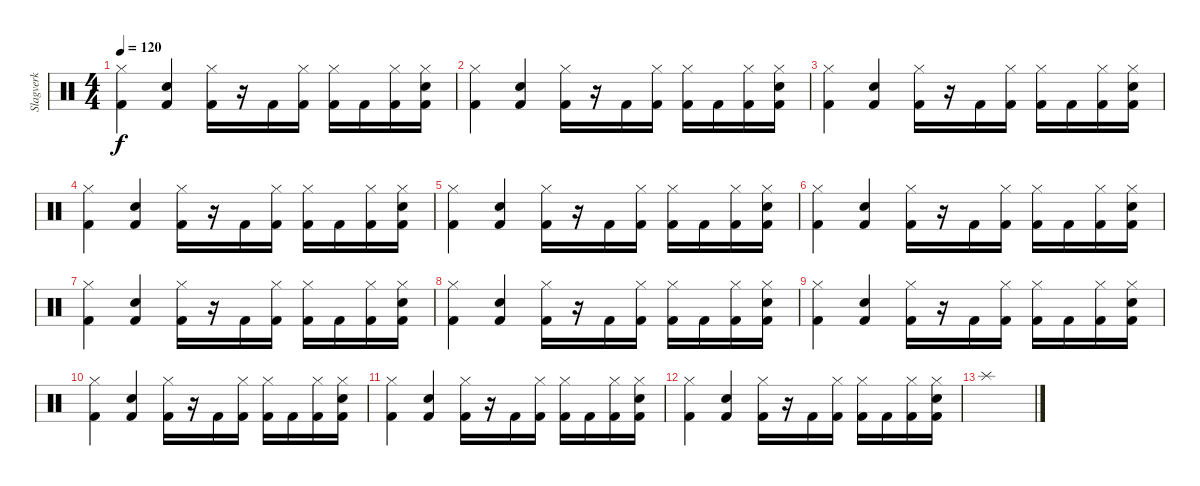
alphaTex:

\track ("Slagverk" "Slagverk") {instrument percussion}
\staff {score}
\articulation defaults
\ts (4 4)
\tempo 120
\clef neutral
\ks c
("Kick (hit) 2" "Hi-Hat (closed)").4{dy f} ("Kick (hit) 2" "Electric Snare (hit)").4 ("Kick (hit) 2" "Hi-Hat (closed)").16 r.16 "Kick (hit) 2".16 ("Kick (hit) 2" "Hi-Hat (closed)").16 ("Kick (hit) 2" "Hi-Hat (closed)").16 "Kick (hit) 2".16 ("Kick (hit) 2" "Hi-Hat (closed)").16 ("Kick (hit) 2" "Hi-Hat (closed)" "Electric Snare (hit)").16 |
("Kick (hit) 2" "Hi-Hat (closed)").4 ("Kick (hit) 2" "Electric Snare (hit)").4 ("Kick (hit) 2" "Hi-Hat (closed)").16 r.16 "Kick (hit) 2".16 ("Kick (hit) 2" "Hi-Hat (closed)").16 ("Kick (hit) 2" "Hi-Hat (closed)").16 "Kick (hit) 2".16 ("Kick (hit) 2" "Hi-Hat (closed)").16 ("Kick (hit) 2" "Hi-Hat (closed)" "Electric Snare (hit)").16 |
("Kick (hit) 2" "Hi-Hat (closed)").4 ("Kick (hit) 2" "Electric Snare (hit)").4 ("Kick (hit) 2" "Hi-Hat (closed)").16 r.16 "Kick (hit) 2".16 ("Kick (hit) 2" "Hi-Hat (closed)").16 ("Kick (hit) 2" "Hi-Hat (closed)").16 "Kick (hit) 2".16 ("Kick (hit) 2" "Hi-Hat (closed)").16 ("Kick (hit) 2" "Hi-Hat (closed)" "Electric Snare (hit)").16 |
("Kick (hit) 2" "Hi-Hat (closed)").4 ("Kick (hit) 2" "Electric Snare (hit)").4 ("Kick (hit) 2" "Hi-Hat (closed)").16 r.16 "Kick (hit) 2".16 ("Kick (hit) 2" "Hi-Hat (closed)").16 ("Kick (hit) 2" "Hi-Hat (closed)").16 "Kick (hit) 2".16 ("Kick (hit) 2" "Hi-Hat (closed)").16 ("Kick (hit) 2" "Hi-Hat (closed)" "Electric Snare (hit)").16 |
("Kick (hit) 2" "Hi-Hat (closed)").4 ("Kick (hit) 2" "Electric Snare (hit)").4 ("Kick (hit) 2" "Hi-Hat (closed)").16 r.16 "Kick (hit) 2".16 ("Kick (hit) 2" "Hi-Hat (closed)").16 ("Kick (hit) 2" "Hi-Hat (closed)").16 "Kick (hit) 2".16 ("Kick (hit) 2" "Hi-Hat (closed)").16 ("Kick (hit) 2" "Hi-Hat (closed)" "Electric Snare (hit)").16 |
("Kick (hit) 2" "Hi-Hat (closed)").4 ("Kick (hit) 2" "Electric Snare (hit)").4 ("Kick (hit) 2" "Hi-Hat (closed)").16 r.16 "Kick (hit) 2".16 ("Kick (hit) 2" "Hi-Hat (closed)").16 ("Kick (hit) 2" "Hi-Hat (closed)").16 "Kick (hit) 2".16 ("Kick (hit) 2" "Hi-Hat (closed)").16 ("Kick (hit) 2" "Hi-Hat (closed)" "Electric Snare (hit)").16 |
("Kick (hit) 2" "Hi-Hat (closed)").4 ("Kick (hit) 2" "Electric Snare (hit)").4 ("Kick (hit) 2" "Hi-Hat (closed)").16 r.16 "Kick (hit) 2".16 ("Kick (hit) 2" "Hi-Hat (closed)").16 ("Kick (hit) 2" "Hi-Hat (closed)").16 "Kick (hit) 2".16 ("Kick (hit) 2" "Hi-Hat (closed)").16 ("Kick (hit) 2" "Hi-Hat (closed)" "Electric Snare (hit)").16 |
("Kick (hit) 2" "Hi-Hat (closed)").4 ("Kick (hit) 2" "Electric Snare (hit)").4 ("Kick (hit) 2" "Hi-Hat (closed)").16 r.16 "Kick (hit) 2".16 ("Kick (hit) 2" "Hi-Hat (closed)").16 ("Kick (hit) 2" "Hi-Hat (closed)").16 "Kick (hit) 2".16 ("Kick (hit) 2" "Hi-Hat (closed)").16 ("Kick (hit) 2" "Hi-Hat (closed)" "Electric Snare (hit)").16 |
("Kick (hit) 2" "Hi-Hat (closed)").4 ("Kick (hit) 2" "Electric Snare (hit)").4 ("Kick (hit) 2" "Hi-Hat (closed)").16 r.16 "Kick (hit) 2".16 ("Kick (hit) 2" "Hi-Hat (closed)").16 ("Kick (hit) 2" "Hi-Hat (closed)").16 "Kick (hit) 2".16 ("Kick (hit) 2" "Hi-Hat (closed)").16 ("Kick (hit) 2" "Hi-Hat (closed)" "Electric Snare (hit)").16 |
("Kick (hit) 2" "Hi-Hat (closed)").4 ("Kick (hit) 2" "Electric Snare (hit)").4 ("Kick (hit) 2" "Hi-Hat (closed)").16 r.16 "Kick (hit) 2".16 ("Kick (hit) 2" "Hi-Hat (closed)").16 ("Kick (hit) 2" "Hi-Hat (closed)").16 "Kick (hit) 2".16 ("Kick (hit) 2" "Hi-Hat (closed)").16 ("Kick (hit) 2" "Hi-Hat (closed)" "Electric Snare (hit)").16 |
("Kick (hit) 2" "Hi-Hat (closed)").4 ("Kick (hit) 2" "Electric Snare (hit)").4 ("Kick (hit) 2" "Hi-Hat (closed)").16 r.16 "Kick (hit) 2".16 ("Kick (hit) 2" "Hi-Hat (closed)").16 ("Kick (hit) 2" "Hi-Hat (closed)").16 "Kick (hit) 2".16 ("Kick (hit) 2" "Hi-Hat (closed)").16 ("Kick (hit) 2" "Hi-Hat (closed)" "Electric Snare (hit)").16 |
("Kick (hit) 2" "Hi-Hat (closed)").4 ("Kick (hit) 2" "Electric Snare (hit)").4 ("Kick (hit) 2" "Hi-Hat (closed)").16 r.16 "Kick (hit) 2".16 ("Kick (hit) 2" "Hi-Hat (closed)").16 ("Kick (hit) 2" "Hi-Hat (closed)").16 "Kick (hit) 2".16 ("Kick (hit) 2" "Hi-Hat (closed)").16 ("Kick (hit) 2" "Hi-Hat (closed)" "Electric Snare (hit)").16 |
"Splash (hit)".1
